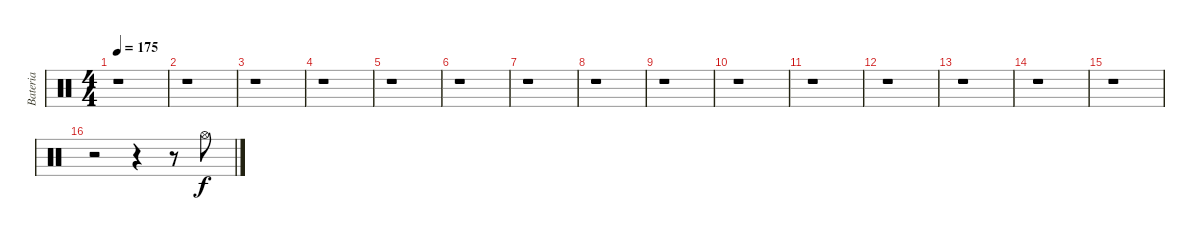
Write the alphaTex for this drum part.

\track ("Bateria" "Bateria") {instrument percussion}
\staff {score}
\articulation defaults
\ts (4 4)
\tempo 175
\clef neutral
\ks c
r.1{dy f} |
r.1 |
r.1 |
r.1 |
r.1 |
r.1 |
r.1 |
r.1 |
r.1 |
r.1 |
r.1 |
r.1 |
r.1 |
r.1 |
r.1 |
r.2 r.4 r.8 "Hi-Hat (open)".8
